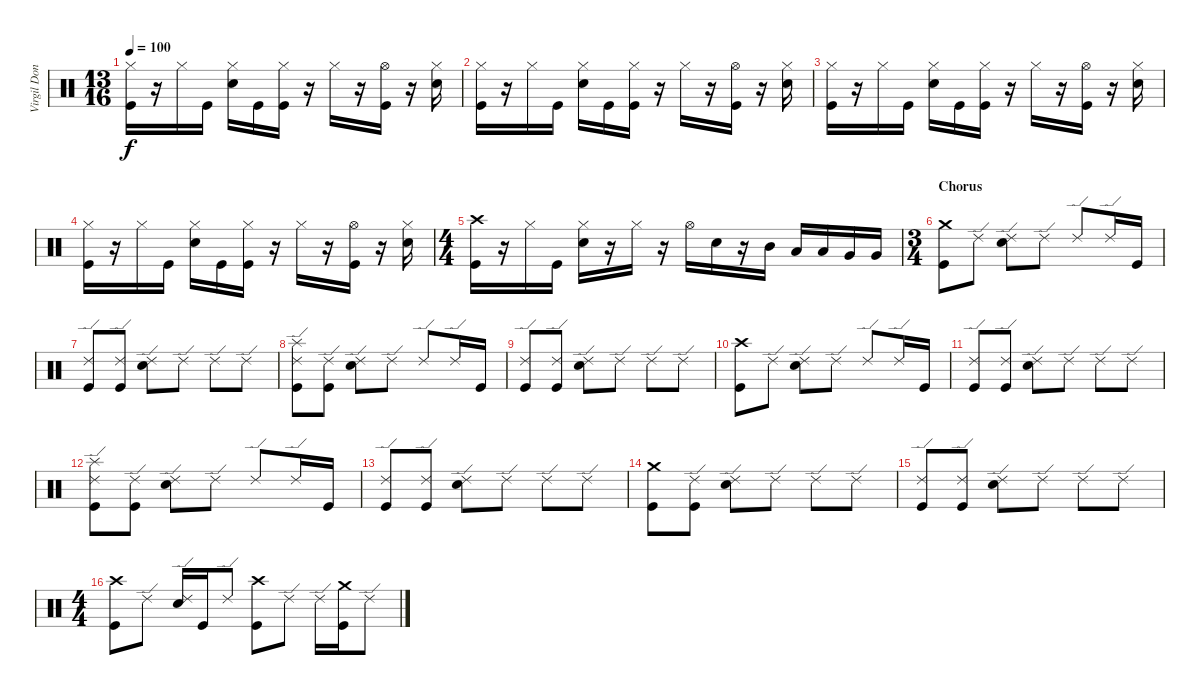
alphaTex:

\track ("Virgil Donati" "Virgil Don") {instrument percussion}
\staff {score}
\articulation defaults
\ts (13 16)
\tempo 100
\clef neutral
\ks c
("Hi-Hat (closed)" "Kick (hit)").16{dy f} r.16 "Hi-Hat (closed)".16 "Kick (hit)".16 ("Hi-Hat (closed)" "Electric Snare (hit)").16 "Kick (hit)".16 ("Hi-Hat (closed)" "Kick (hit)").16 r.16 "Hi-Hat (closed)".16 r.16 ("Hi-Hat (open)" "Kick (hit)").16 r.16 ("Hi-Hat (closed)" "Electric Snare (hit)").16 |
("Hi-Hat (closed)" "Kick (hit)").16 r.16 "Hi-Hat (closed)".16 "Kick (hit)".16 ("Hi-Hat (closed)" "Electric Snare (hit)").16 "Kick (hit)".16 ("Hi-Hat (closed)" "Kick (hit)").16 r.16 "Hi-Hat (closed)".16 r.16 ("Hi-Hat (open)" "Kick (hit)").16 r.16 ("Hi-Hat (closed)" "Electric Snare (hit)").16 |
("Hi-Hat (closed)" "Kick (hit)").16 r.16 "Hi-Hat (closed)".16 "Kick (hit)".16 ("Hi-Hat (closed)" "Electric Snare (hit)").16 "Kick (hit)".16 ("Hi-Hat (closed)" "Kick (hit)").16 r.16 "Hi-Hat (closed)".16 r.16 ("Hi-Hat (open)" "Kick (hit)").16 r.16 ("Hi-Hat (closed)" "Electric Snare (hit)").16 |
("Hi-Hat (closed)" "Kick (hit)").16 r.16 "Hi-Hat (closed)".16 "Kick (hit)".16 ("Hi-Hat (closed)" "Electric Snare (hit)").16 "Kick (hit)".16 ("Hi-Hat (closed)" "Kick (hit)").16 r.16 "Hi-Hat (closed)".16 r.16 ("Hi-Hat (open)" "Kick (hit)").16 r.16 ("Hi-Hat (closed)" "Electric Snare (hit)").16 |
\ts (4 4)
("Crash high (hit)" "Kick (hit)").16 r.16 "Hi-Hat (closed)".16 "Kick (hit)".16 ("Hi-Hat (closed)" "Electric Snare (hit)").16 r.16 "Hi-Hat (closed)".16 r.16 "Hi-Hat (open)".16 "Electric Snare (hit)".16 r.16 "Mid Tom (hit)".16 "Low Tom (hit)".16 "Low Tom (hit)".16 "Very Low Tom (hit)".16 "Very Low Tom (hit)".16 |
\ts (3 4)
\section ("" "Chorus")
("Crash medium (hit)" "Kick (hit)").8 "Ride (edge) 2".8 ("Ride (edge) 2" "Electric Snare (hit)").8 "Ride (edge) 2".8 "Ride (edge) 2".8 "Ride (edge) 2".16 "Kick (hit)".16 |
("Ride (edge) 2" "Kick (hit)").8 ("Ride (edge) 2" "Kick (hit)").8 ("Ride (edge) 2" "Electric Snare (hit)").8 "Ride (edge) 2".8 "Ride (edge) 2".8 "Ride (edge) 2".8 |
("Ride (edge) 2" "Splash (hit)" "Kick (hit)").8 ("Ride (edge) 2" "Kick (hit)").8 ("Ride (edge) 2" "Electric Snare (hit)").8 "Ride (edge) 2".8 "Ride (edge) 2".8 "Ride (edge) 2".16 "Kick (hit)".16 |
("Ride (edge) 2" "Kick (hit)").8 ("Ride (edge) 2" "Kick (hit)").8 ("Ride (edge) 2" "Electric Snare (hit)").8 "Ride (edge) 2".8 "Ride (edge) 2".8 "Ride (edge) 2".8 |
("Crash high (hit)" "Kick (hit)").8 "Ride (edge) 2".8 ("Ride (edge) 2" "Electric Snare (hit)").8 "Ride (edge) 2".8 "Ride (edge) 2".8 "Ride (edge) 2".16 "Kick (hit)".16 |
("Ride (edge) 2" "Kick (hit)").8 ("Ride (edge) 2" "Kick (hit)").8 ("Ride (edge) 2" "Electric Snare (hit)").8 "Ride (edge) 2".8 "Ride (edge) 2".8 "Ride (edge) 2".8 |
("Ride (edge) 2" "Splash (hit)" "Kick (hit)").8 ("Ride (edge) 2" "Kick (hit)").8 ("Ride (edge) 2" "Electric Snare (hit)").8 "Ride (edge) 2".8 "Ride (edge) 2".8 "Ride (edge) 2".16 "Kick (hit)".16 |
("Ride (edge) 2" "Kick (hit)").8 ("Ride (edge) 2" "Kick (hit)").8 ("Ride (edge) 2" "Electric Snare (hit)").8 "Ride (edge) 2".8 "Ride (edge) 2".8 "Ride (edge) 2".8 |
("Crash medium (hit)" "Kick (hit)").8 ("Ride (edge) 2" "Kick (hit)").8 ("Ride (edge) 2" "Electric Snare (hit)").8 "Ride (edge) 2".8 "Ride (edge) 2".8 "Ride (edge) 2".8 |
("Ride (edge) 2" "Kick (hit)").8 ("Ride (edge) 2" "Kick (hit)").8 ("Ride (edge) 2" "Electric Snare (hit)").8 "Ride (edge) 2".8 "Ride (edge) 2".8 "Ride (edge) 2".8 |
\ts (4 4)
("Crash high (hit)" "Kick (hit)").8 "Ride (edge) 2".8 ("Ride (edge) 2" "Electric Snare (hit)").16 "Kick (hit)".16 "Ride (edge) 2".8 ("Crash high (hit)" "Kick (hit)").8 "Ride (edge) 2".8 "Ride (edge) 2".16 ("Crash medium (hit)" "Kick (hit)").16 "Ride (edge) 2".8
